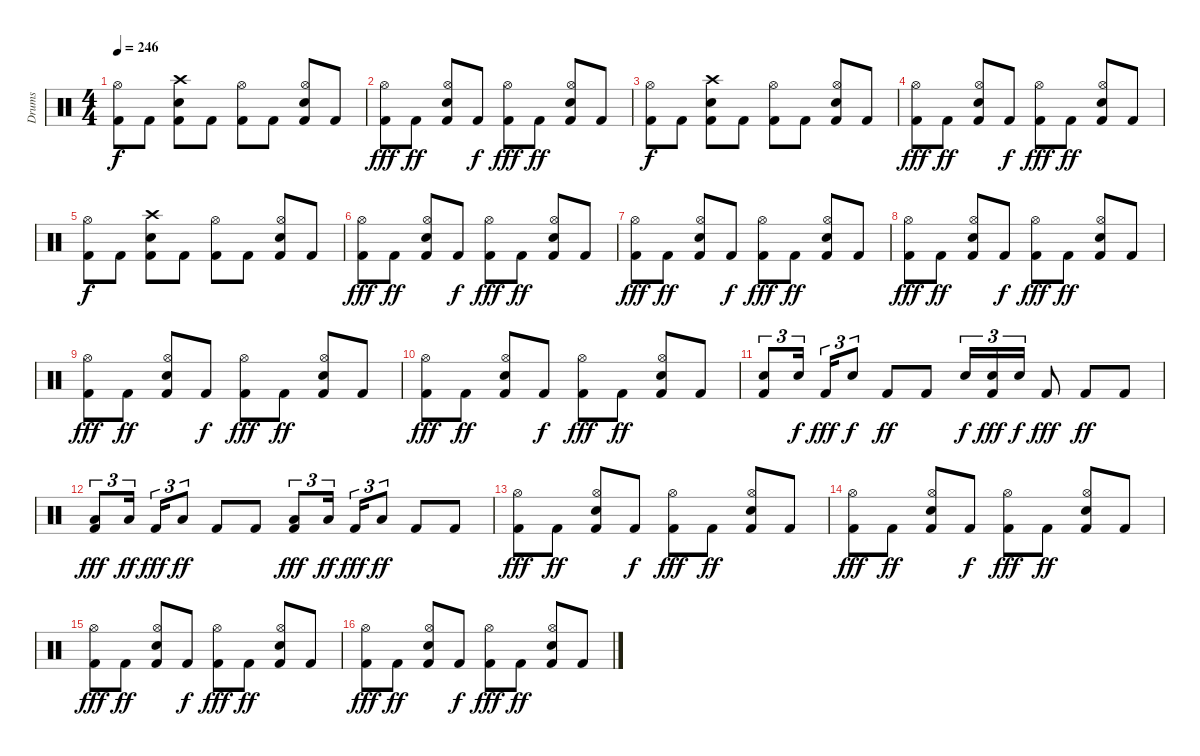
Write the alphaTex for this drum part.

\track ("Drums" "Drums") {instrument percussion}
\staff {score}
\articulation defaults
\ts (4 4)
\tempo 246
\clef neutral
\ks c
("Kick (hit) 2" "Hi-Hat (open)").8{dy f volume 12} "Kick (hit) 2".8 ("Kick (hit) 2" "Snare (hit) 2" "Crash high (hit)").8 "Kick (hit) 2".8 ("Kick (hit) 2" "Hi-Hat (open)").8 "Kick (hit) 2".8 ("Kick (hit) 2" "Snare (hit) 2" "Hi-Hat (open)").8 "Kick (hit) 2".8 |
("Kick (hit) 2" "Hi-Hat (open)").8{dy fff volume 12} "Kick (hit) 2".8{dy ff} ("Kick (hit) 2" "Snare (hit) 2" "Hi-Hat (open)").8 "Kick (hit) 2".8{dy f} ("Kick (hit) 2" "Hi-Hat (open)").8{dy fff} "Kick (hit) 2".8{dy ff} ("Kick (hit) 2" "Snare (hit) 2" "Hi-Hat (open)").8 "Kick (hit) 2".8 |
("Kick (hit) 2" "Hi-Hat (open)").8{dy f volume 12} "Kick (hit) 2".8 ("Kick (hit) 2" "Snare (hit) 2" "Crash high (hit)").8 "Kick (hit) 2".8 ("Kick (hit) 2" "Hi-Hat (open)").8 "Kick (hit) 2".8 ("Kick (hit) 2" "Snare (hit) 2" "Hi-Hat (open)").8 "Kick (hit) 2".8 |
("Kick (hit) 2" "Hi-Hat (open)").8{dy fff volume 12} "Kick (hit) 2".8{dy ff} ("Kick (hit) 2" "Snare (hit) 2" "Hi-Hat (open)").8 "Kick (hit) 2".8{dy f} ("Kick (hit) 2" "Hi-Hat (open)").8{dy fff} "Kick (hit) 2".8{dy ff} ("Kick (hit) 2" "Snare (hit) 2" "Hi-Hat (open)").8 "Kick (hit) 2".8 |
("Kick (hit) 2" "Hi-Hat (open)").8{dy f volume 12} "Kick (hit) 2".8 ("Kick (hit) 2" "Snare (hit) 2" "Crash high (hit)").8 "Kick (hit) 2".8 ("Kick (hit) 2" "Hi-Hat (open)").8 "Kick (hit) 2".8 ("Kick (hit) 2" "Snare (hit) 2" "Hi-Hat (open)").8 "Kick (hit) 2".8 |
("Kick (hit) 2" "Hi-Hat (open)").8{dy fff volume 12} "Kick (hit) 2".8{dy ff} ("Kick (hit) 2" "Snare (hit) 2" "Hi-Hat (open)").8 "Kick (hit) 2".8{dy f} ("Kick (hit) 2" "Hi-Hat (open)").8{dy fff} "Kick (hit) 2".8{dy ff} ("Kick (hit) 2" "Snare (hit) 2" "Hi-Hat (open)").8 "Kick (hit) 2".8 |
("Kick (hit) 2" "Hi-Hat (open)").8{dy fff volume 12} "Kick (hit) 2".8{dy ff} ("Kick (hit) 2" "Snare (hit) 2" "Hi-Hat (open)").8 "Kick (hit) 2".8{dy f} ("Kick (hit) 2" "Hi-Hat (open)").8{dy fff} "Kick (hit) 2".8{dy ff} ("Kick (hit) 2" "Snare (hit) 2" "Hi-Hat (open)").8 "Kick (hit) 2".8 |
("Kick (hit) 2" "Hi-Hat (open)").8{dy fff volume 12} "Kick (hit) 2".8{dy ff} ("Kick (hit) 2" "Snare (hit) 2" "Hi-Hat (open)").8 "Kick (hit) 2".8{dy f} ("Kick (hit) 2" "Hi-Hat (open)").8{dy fff} "Kick (hit) 2".8{dy ff} ("Kick (hit) 2" "Snare (hit) 2" "Hi-Hat (open)").8 "Kick (hit) 2".8 |
("Kick (hit) 2" "Hi-Hat (open)").8{dy fff volume 12} "Kick (hit) 2".8{dy ff} ("Kick (hit) 2" "Snare (hit) 2" "Hi-Hat (open)").8 "Kick (hit) 2".8{dy f} ("Kick (hit) 2" "Hi-Hat (open)").8{dy fff} "Kick (hit) 2".8{dy ff} ("Kick (hit) 2" "Snare (hit) 2" "Hi-Hat (open)").8 "Kick (hit) 2".8 |
("Kick (hit) 2" "Hi-Hat (open)").8{dy fff volume 12} "Kick (hit) 2".8{dy ff} ("Kick (hit) 2" "Snare (hit) 2" "Hi-Hat (open)").8 "Kick (hit) 2".8{dy f} ("Kick (hit) 2" "Hi-Hat (open)").8{dy fff} "Kick (hit) 2".8{dy ff} ("Kick (hit) 2" "Snare (hit) 2" "Hi-Hat (open)").8 "Kick (hit) 2".8 |
("Kick (hit) 2" "Snare (hit) 2").8{tu (3 2) volume 12} "Snare (hit) 2".16{tu (3 2) dy f} "Kick (hit) 2".16{tu (3 2) dy fff} "Snare (hit) 2".8{tu (3 2) dy f} "Kick (hit) 2".8{dy ff} "Kick (hit) 2".8 "Snare (hit) 2".16{tu (3 2) dy f} ("Kick (hit) 2" "Snare (hit) 2").16{tu (3 2) dy fff} "Snare (hit) 2".16{tu (3 2) dy f} "Kick (hit) 2".8{dy fff} "Kick (hit) 2".8{dy ff} "Kick (hit) 2".8 |
("Kick (hit) 2" "Low Tom (hit)").8{tu (3 2) dy fff volume 12} "Low Tom (hit)".16{tu (3 2) dy ff} "Kick (hit) 2".16{tu (3 2) dy fff} "Low Tom (hit)".8{tu (3 2) dy ff} "Kick (hit) 2".8 "Kick (hit) 2".8 ("Kick (hit) 2" "Low Floor Tom (hit)").8{tu (3 2) dy fff} "Low Floor Tom (hit)".16{tu (3 2) dy ff} "Kick (hit) 2".16{tu (3 2) dy fff} "Low Floor Tom (hit)".8{tu (3 2) dy ff} "Kick (hit) 2".8 "Kick (hit) 2".8 |
("Kick (hit) 2" "Hi-Hat (open)").8{dy fff volume 12} "Kick (hit) 2".8{dy ff} ("Kick (hit) 2" "Snare (hit) 2" "Hi-Hat (open)").8 "Kick (hit) 2".8{dy f} ("Kick (hit) 2" "Hi-Hat (open)").8{dy fff} "Kick (hit) 2".8{dy ff} ("Kick (hit) 2" "Snare (hit) 2" "Hi-Hat (open)").8 "Kick (hit) 2".8 |
("Kick (hit) 2" "Hi-Hat (open)").8{dy fff volume 12} "Kick (hit) 2".8{dy ff} ("Kick (hit) 2" "Snare (hit) 2" "Hi-Hat (open)").8 "Kick (hit) 2".8{dy f} ("Kick (hit) 2" "Hi-Hat (open)").8{dy fff} "Kick (hit) 2".8{dy ff} ("Kick (hit) 2" "Snare (hit) 2" "Hi-Hat (open)").8 "Kick (hit) 2".8 |
("Kick (hit) 2" "Hi-Hat (open)").8{dy fff volume 12} "Kick (hit) 2".8{dy ff} ("Kick (hit) 2" "Snare (hit) 2" "Hi-Hat (open)").8 "Kick (hit) 2".8{dy f} ("Kick (hit) 2" "Hi-Hat (open)").8{dy fff} "Kick (hit) 2".8{dy ff} ("Kick (hit) 2" "Snare (hit) 2" "Hi-Hat (open)").8 "Kick (hit) 2".8 |
("Kick (hit) 2" "Hi-Hat (open)").8{dy fff volume 12} "Kick (hit) 2".8{dy ff} ("Kick (hit) 2" "Snare (hit) 2" "Hi-Hat (open)").8 "Kick (hit) 2".8{dy f} ("Kick (hit) 2" "Hi-Hat (open)").8{dy fff} "Kick (hit) 2".8{dy ff} ("Kick (hit) 2" "Snare (hit) 2" "Hi-Hat (open)").8 "Kick (hit) 2".8
